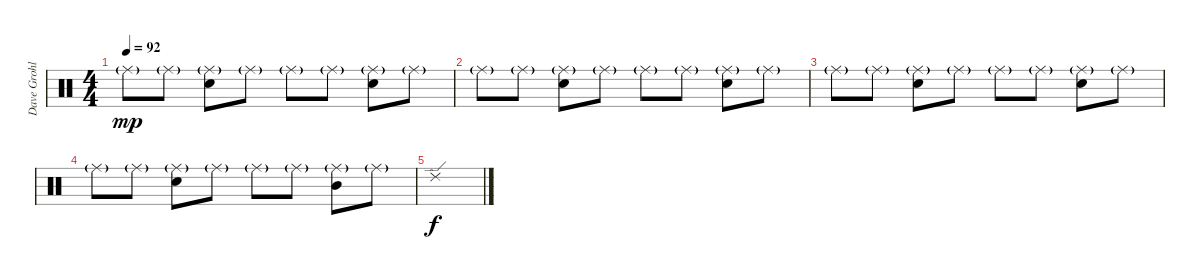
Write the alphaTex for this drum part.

\track ("Dave Grohl - Drums" "Dave Grohl") {instrument percussion}
\staff {score}
\articulation defaults
\ts (4 4)
\tempo 92
\clef neutral
\ks c "Ride (middle)"{g}.8{dy mp} "Ride (middle)"{g}.8
("Ride (middle)"{g} "Electric Snare (hit)").8 "Ride (middle)"{g}.8 "Ride (middle)"{g}.8 "Ride (middle)"{g}.8 ("Ride (middle)"{g} "Electric Snare (hit)").8 "Ride (middle)"{g}.8 |
"Ride (middle)"{g}.8 "Ride (middle)"{g}.8 ("Ride (middle)"{g} "Electric Snare (hit)").8 "Ride (middle)"{g}.8 "Ride (middle)"{g}.8 "Ride (middle)"{g}.8 ("Ride (middle)"{g} "Electric Snare (hit)").8 "Ride (middle)"{g}.8 |
"Ride (middle)"{g}.8 "Ride (middle)"{g}.8 ("Ride (middle)"{g} "Electric Snare (hit)").8 "Ride (middle)"{g}.8 "Ride (middle)"{g}.8 "Ride (middle)"{g}.8 ("Ride (middle)"{g} "Electric Snare (hit)").8 "Ride (middle)"{g}.8 |
"Ride (middle)"{g}.8 "Ride (middle)"{g}.8 ("Ride (middle)"{g} "Electric Snare (hit)").8 "Ride (middle)"{g}.8 "Ride (middle)"{g}.8 "Ride (middle)"{g}.8 ("Ride (middle)"{g} "Mid Tom (hit)").8 "Ride (middle)"{g}.8 |
"Ride (edge) 2".1{dy f}
